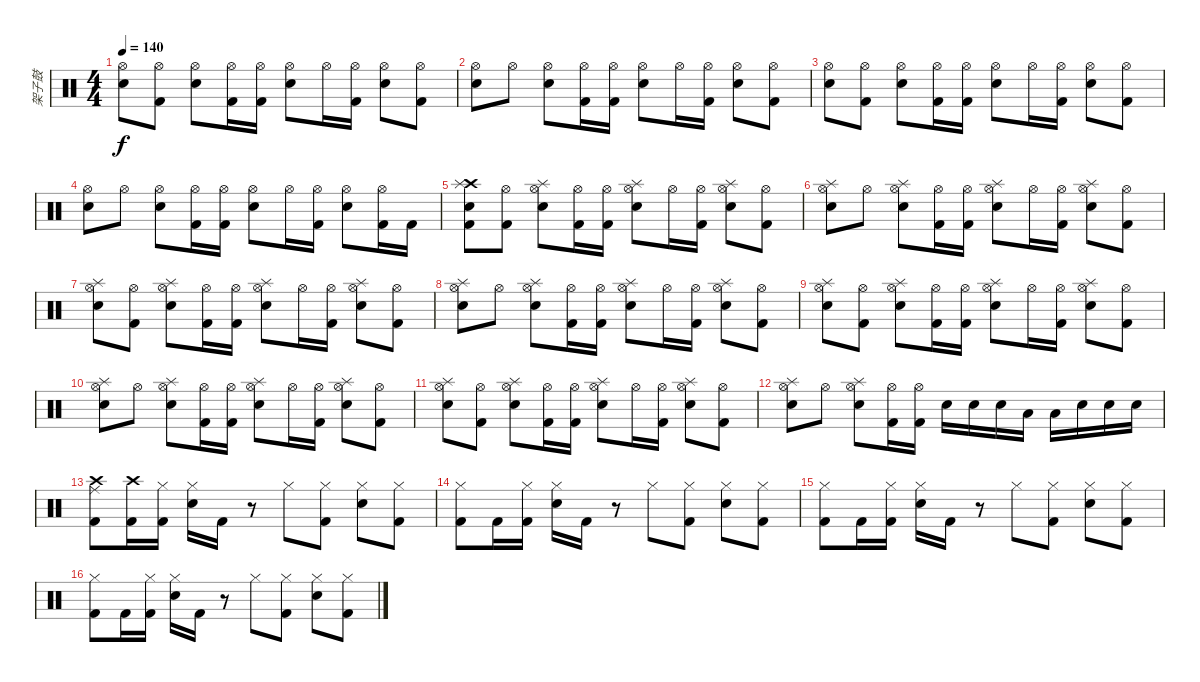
\track ("架子鼓" "架子鼓") {instrument percussion}
\staff {score}
\articulation defaults
\ts (4 4)
\tempo 140
\clef neutral
\ks c
("Hi-Hat (open)" "Snare (hit) 2").8{dy f} ("Hi-Hat (open)" "Kick (hit) 2").8 ("Hi-Hat (open)" "Snare (hit) 2").8 ("Hi-Hat (open)" "Kick (hit) 2").16 ("Hi-Hat (open)" "Kick (hit) 2").16 ("Hi-Hat (open)" "Snare (hit) 2").8 "Hi-Hat (open)".16 ("Hi-Hat (open)" "Kick (hit) 2").16 ("Hi-Hat (open)" "Snare (hit) 2").8 ("Hi-Hat (open)" "Kick (hit) 2").8 |
("Hi-Hat (open)" "Snare (hit) 2").8 "Hi-Hat (open)".8 ("Hi-Hat (open)" "Snare (hit) 2").8 ("Hi-Hat (open)" "Kick (hit) 2").16 ("Hi-Hat (open)" "Kick (hit) 2").16 ("Hi-Hat (open)" "Snare (hit) 2").8 "Hi-Hat (open)".16 ("Hi-Hat (open)" "Kick (hit) 2").16 ("Hi-Hat (open)" "Snare (hit) 2").8 ("Hi-Hat (open)" "Kick (hit) 2").8 |
("Hi-Hat (open)" "Snare (hit) 2").8 ("Hi-Hat (open)" "Kick (hit) 2").8 ("Hi-Hat (open)" "Snare (hit) 2").8 ("Hi-Hat (open)" "Kick (hit) 2").16 ("Hi-Hat (open)" "Kick (hit) 2").16 ("Hi-Hat (open)" "Snare (hit) 2").8 "Hi-Hat (open)".16 ("Hi-Hat (open)" "Kick (hit) 2").16 ("Hi-Hat (open)" "Snare (hit) 2").8 ("Hi-Hat (open)" "Kick (hit) 2").8 |
("Hi-Hat (open)" "Snare (hit) 2").8 "Hi-Hat (open)".8 ("Hi-Hat (open)" "Snare (hit) 2").8 ("Hi-Hat (open)" "Kick (hit) 2").16 ("Hi-Hat (open)" "Kick (hit) 2").16 ("Hi-Hat (open)" "Snare (hit) 2").8 "Hi-Hat (open)".16 ("Hi-Hat (open)" "Kick (hit) 2").16 ("Hi-Hat (open)" "Snare (hit) 2").8 ("Hi-Hat (open)" "Kick (hit) 2").16 "Kick (hit) 2".16 |
("Crash high (hit)" "Splash (hit)" "Snare (hit) 2" "Kick (hit) 2").8 ("Hi-Hat (open)" "Kick (hit) 2").8 ("Hi-Hat (open)" "Splash (hit)" "Snare (hit) 2").8 ("Hi-Hat (open)" "Kick (hit) 2").16 ("Hi-Hat (open)" "Kick (hit) 2").16 ("Hi-Hat (open)" "Splash (hit)" "Snare (hit) 2").8 "Hi-Hat (open)".16 ("Hi-Hat (open)" "Kick (hit) 2").16 ("Hi-Hat (open)" "Splash (hit)" "Snare (hit) 2").8 ("Hi-Hat (open)" "Kick (hit) 2").8 |
("Hi-Hat (open)" "Splash (hit)" "Snare (hit) 2").8 "Hi-Hat (open)".8 ("Hi-Hat (open)" "Splash (hit)" "Snare (hit) 2").8 ("Hi-Hat (open)" "Kick (hit) 2").16 ("Hi-Hat (open)" "Kick (hit) 2").16 ("Hi-Hat (open)" "Splash (hit)" "Snare (hit) 2").8 "Hi-Hat (open)".16 ("Hi-Hat (open)" "Kick (hit) 2").16 ("Hi-Hat (open)" "Splash (hit)" "Snare (hit) 2").8 ("Hi-Hat (open)" "Kick (hit) 2").8 |
("Hi-Hat (open)" "Splash (hit)" "Snare (hit) 2").8 ("Hi-Hat (open)" "Kick (hit) 2").8 ("Hi-Hat (open)" "Splash (hit)" "Snare (hit) 2").8 ("Hi-Hat (open)" "Kick (hit) 2").16 ("Hi-Hat (open)" "Kick (hit) 2").16 ("Hi-Hat (open)" "Splash (hit)" "Snare (hit) 2").8 "Hi-Hat (open)".16 ("Hi-Hat (open)" "Kick (hit) 2").16 ("Hi-Hat (open)" "Splash (hit)" "Snare (hit) 2").8 ("Hi-Hat (open)" "Kick (hit) 2").8 |
("Hi-Hat (open)" "Splash (hit)" "Snare (hit) 2").8 "Hi-Hat (open)".8 ("Hi-Hat (open)" "Splash (hit)" "Snare (hit) 2").8 ("Hi-Hat (open)" "Kick (hit) 2").16 ("Hi-Hat (open)" "Kick (hit) 2").16 ("Hi-Hat (open)" "Splash (hit)" "Snare (hit) 2").8 "Hi-Hat (open)".16 ("Hi-Hat (open)" "Kick (hit) 2").16 ("Hi-Hat (open)" "Splash (hit)" "Snare (hit) 2").8 ("Hi-Hat (open)" "Kick (hit) 2").8 |
("Hi-Hat (open)" "Splash (hit)" "Snare (hit) 2").8 ("Hi-Hat (open)" "Kick (hit) 2").8 ("Hi-Hat (open)" "Splash (hit)" "Snare (hit) 2").8 ("Hi-Hat (open)" "Kick (hit) 2").16 ("Hi-Hat (open)" "Kick (hit) 2").16 ("Hi-Hat (open)" "Splash (hit)" "Snare (hit) 2").8 "Hi-Hat (open)".16 ("Hi-Hat (open)" "Kick (hit) 2").16 ("Hi-Hat (open)" "Splash (hit)" "Snare (hit) 2").8 ("Hi-Hat (open)" "Kick (hit) 2").8 |
("Hi-Hat (open)" "Splash (hit)" "Snare (hit) 2").8 "Hi-Hat (open)".8 ("Hi-Hat (open)" "Splash (hit)" "Snare (hit) 2").8 ("Hi-Hat (open)" "Kick (hit) 2").16 ("Hi-Hat (open)" "Kick (hit) 2").16 ("Hi-Hat (open)" "Splash (hit)" "Snare (hit) 2").8 "Hi-Hat (open)".16 ("Hi-Hat (open)" "Kick (hit) 2").16 ("Hi-Hat (open)" "Splash (hit)" "Snare (hit) 2").8 ("Hi-Hat (open)" "Kick (hit) 2").8 |
("Hi-Hat (open)" "Splash (hit)" "Snare (hit) 2").8 ("Hi-Hat (open)" "Kick (hit) 2").8 ("Hi-Hat (open)" "Splash (hit)" "Snare (hit) 2").8 ("Hi-Hat (open)" "Kick (hit) 2").16 ("Hi-Hat (open)" "Kick (hit) 2").16 ("Hi-Hat (open)" "Splash (hit)" "Snare (hit) 2").8 "Hi-Hat (open)".16 ("Hi-Hat (open)" "Kick (hit) 2").16 ("Hi-Hat (open)" "Splash (hit)" "Snare (hit) 2").8 ("Hi-Hat (open)" "Kick (hit) 2").8 |
("Hi-Hat (open)" "Splash (hit)" "Snare (hit) 2").8 "Hi-Hat (open)".8 ("Hi-Hat (open)" "Splash (hit)" "Snare (hit) 2").8 ("Hi-Hat (open)" "Kick (hit) 2").16 ("Hi-Hat (open)" "Kick (hit) 2").16 "Snare (hit) 2".16 "Snare (hit) 2".16 "Snare (hit) 2".16 "Low Tom (hit)".16 "Low Tom (hit)".16 "Snare (hit) 2".16 "Snare (hit) 2".16 "Snare (hit) 2".16 |
("Crash high (hit)" "Ride (middle)" "Kick (hit) 2").8 ("Crash high (hit)" "Kick (hit) 2").16 ("Hi-Hat (closed)" "Kick (hit) 2").16 ("Hi-Hat (closed)" "Snare (hit) 2").16 "Kick (hit) 2".16 r.8 "Hi-Hat (closed)".8 ("Hi-Hat (closed)" "Kick (hit) 2").8 ("Hi-Hat (closed)" "Snare (hit) 2").8 ("Hi-Hat (closed)" "Kick (hit) 2").8 |
("Hi-Hat (closed)" "Kick (hit) 2").8 "Kick (hit) 2".16 ("Hi-Hat (closed)" "Kick (hit) 2").16 ("Hi-Hat (closed)" "Snare (hit) 2").16 "Kick (hit) 2".16 r.8 "Hi-Hat (closed)".8 ("Hi-Hat (closed)" "Kick (hit) 2").8 ("Hi-Hat (closed)" "Snare (hit) 2").8 ("Hi-Hat (closed)" "Kick (hit) 2").8 |
("Hi-Hat (closed)" "Kick (hit) 2").8 "Kick (hit) 2".16 ("Hi-Hat (closed)" "Kick (hit) 2").16 ("Hi-Hat (closed)" "Snare (hit) 2").16 "Kick (hit) 2".16 r.8 "Hi-Hat (closed)".8 ("Hi-Hat (closed)" "Kick (hit) 2").8 ("Hi-Hat (closed)" "Snare (hit) 2").8 ("Hi-Hat (closed)" "Kick (hit) 2").8 |
("Hi-Hat (closed)" "Kick (hit) 2").8 "Kick (hit) 2".16 ("Hi-Hat (closed)" "Kick (hit) 2").16 ("Hi-Hat (closed)" "Snare (hit) 2").16 "Kick (hit) 2".16 r.8 "Hi-Hat (closed)".8 ("Hi-Hat (closed)" "Kick (hit) 2").8 ("Hi-Hat (closed)" "Snare (hit) 2").8 ("Hi-Hat (closed)" "Kick (hit) 2").8
